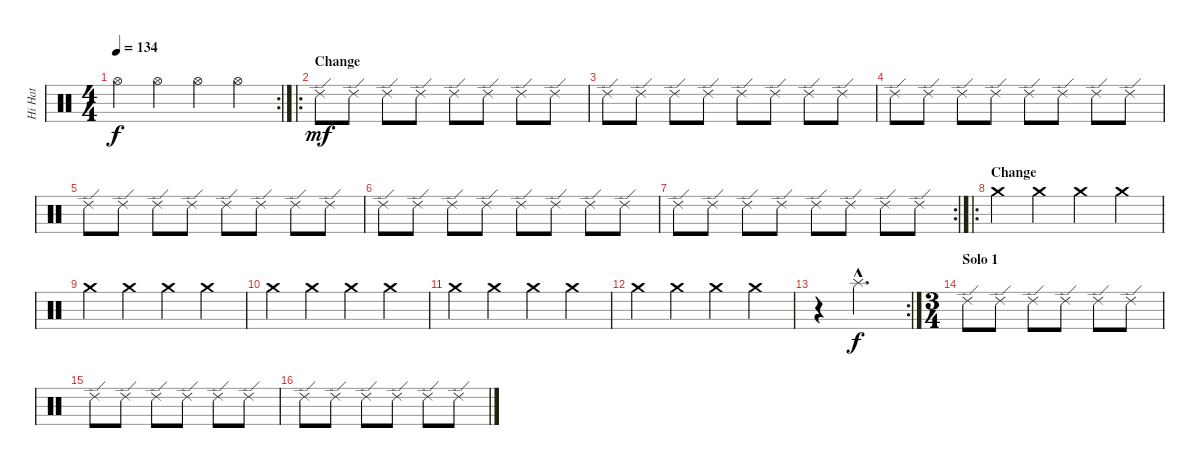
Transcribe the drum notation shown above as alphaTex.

\track ("Hi Hat" "Hi Hat") {instrument percussion}
\staff {score}
\articulation defaults
\rc 2
\ts (4 4)
\tempo 134
\clef neutral
\ks c "Hi-Hat (open)".4{dy f} "Hi-Hat (open)".4 "Hi-Hat (open)".4 "Hi-Hat (open)".4
|
\ro
\section ("" "Change")
"Ride (edge) 2".8{dy mf} "Ride (edge) 2".8 "Ride (edge) 2".8 "Ride (edge) 2".8 "Ride (edge) 2".8 "Ride (edge) 2".8 "Ride (edge) 2".8 "Ride (edge) 2".8 |
"Ride (edge) 2".8 "Ride (edge) 2".8 "Ride (edge) 2".8 "Ride (edge) 2".8 "Ride (edge) 2".8 "Ride (edge) 2".8 "Ride (edge) 2".8 "Ride (edge) 2".8 |
"Ride (edge) 2".8 "Ride (edge) 2".8 "Ride (edge) 2".8 "Ride (edge) 2".8 "Ride (edge) 2".8 "Ride (edge) 2".8 "Ride (edge) 2".8 "Ride (edge) 2".8 |
"Ride (edge) 2".8 "Ride (edge) 2".8 "Ride (edge) 2".8 "Ride (edge) 2".8 "Ride (edge) 2".8 "Ride (edge) 2".8 "Ride (edge) 2".8 "Ride (edge) 2".8 |
"Ride (edge) 2".8 "Ride (edge) 2".8 "Ride (edge) 2".8 "Ride (edge) 2".8 "Ride (edge) 2".8 "Ride (edge) 2".8 "Ride (edge) 2".8 "Ride (edge) 2".8 |
\rc 2 "Ride (edge) 2".8 "Ride (edge) 2".8 "Ride (edge) 2".8 "Ride (edge) 2".8 "Ride (edge) 2".8 "Ride (edge) 2".8 "Ride (edge) 2".8 "Ride (edge) 2".8
|
\ro
\section ("" "Change")
"Crash medium (hit)".4 "Crash medium (hit)".4 "Crash medium (hit)".4 "Crash medium (hit)".4 |
"Crash medium (hit)".4 "Crash medium (hit)".4 "Crash medium (hit)".4 "Crash medium (hit)".4 |
"Crash medium (hit)".4 "Crash medium (hit)".4 "Crash medium (hit)".4 "Crash medium (hit)".4 |
"Crash medium (hit)".4 "Crash medium (hit)".4 "Crash medium (hit)".4 "Crash medium (hit)".4 |
"Crash medium (hit)".4 "Crash medium (hit)".4 "Crash medium (hit)".4 "Crash medium (hit)".4 |
\rc 2
r.4 "Splash (hit)"{hac}.2{d dy f} |
\ts (3 4)
\section ("" "Solo 1")
"Ride (edge) 2".8 "Ride (edge) 2".8 "Ride (edge) 2".8 "Ride (edge) 2".8 "Ride (edge) 2".8 "Ride (edge) 2".8 |
"Ride (edge) 2".8 "Ride (edge) 2".8 "Ride (edge) 2".8 "Ride (edge) 2".8 "Ride (edge) 2".8 "Ride (edge) 2".8 |
"Ride (edge) 2".8 "Ride (edge) 2".8 "Ride (edge) 2".8 "Ride (edge) 2".8 "Ride (edge) 2".8 "Ride (edge) 2".8
